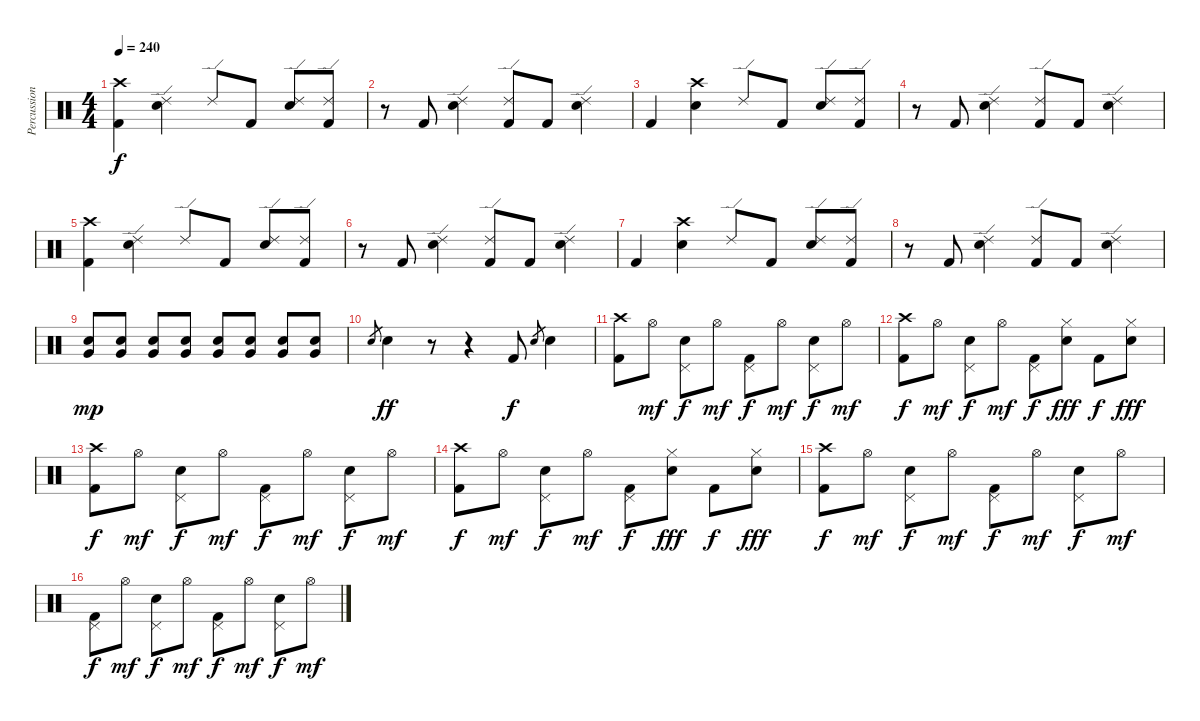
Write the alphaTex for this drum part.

\track ("Percussion" "Percussion") {instrument percussion}
\staff {score}
\articulation defaults
\ts (4 4)
\tempo 240
\clef neutral
\ks c
("Crash high (hit)" "Kick (hit) 2").4{dy f} ("Ride (edge) 2" "Snare (hit) 2").4 "Ride (edge) 2".8 "Kick (hit) 2".8 ("Ride (edge) 2" "Snare (hit) 2").8 ("Ride (edge) 2" "Kick (hit) 2").8 |
r.8 "Kick (hit) 2".8 ("Ride (edge) 2" "Snare (hit) 2").4 ("Ride (edge) 2" "Kick (hit) 2").8 "Kick (hit) 2".8 ("Ride (edge) 2" "Snare (hit) 2").4 |
"Kick (hit) 2".4 ("Crash high (hit)" "Snare (hit) 2").4 "Ride (edge) 2".8 "Kick (hit) 2".8 ("Ride (edge) 2" "Snare (hit) 2").8 ("Ride (edge) 2" "Kick (hit) 2").8 |
r.8 "Kick (hit) 2".8 ("Ride (edge) 2" "Snare (hit) 2").4 ("Ride (edge) 2" "Kick (hit) 2").8 "Kick (hit) 2".8 ("Ride (edge) 2" "Snare (hit) 2").4 |
("Crash high (hit)" "Kick (hit) 2").4 ("Ride (edge) 2" "Snare (hit) 2").4 "Ride (edge) 2".8 "Kick (hit) 2".8 ("Ride (edge) 2" "Snare (hit) 2").8 ("Ride (edge) 2" "Kick (hit) 2").8 |
r.8 "Kick (hit) 2".8 ("Ride (edge) 2" "Snare (hit) 2").4 ("Ride (edge) 2" "Kick (hit) 2").8 "Kick (hit) 2".8 ("Ride (edge) 2" "Snare (hit) 2").4 |
"Kick (hit) 2".4 ("Crash high (hit)" "Snare (hit) 2").4 "Ride (edge) 2".8 "Kick (hit) 2".8 ("Ride (edge) 2" "Snare (hit) 2").8 ("Ride (edge) 2" "Kick (hit) 2").8 |
r.8 "Kick (hit) 2".8 ("Ride (edge) 2" "Snare (hit) 2").4 ("Ride (edge) 2" "Kick (hit) 2").8 "Kick (hit) 2".8 ("Ride (edge) 2" "Snare (hit) 2").4 |
("Very Low Tom (hit)" "Snare (hit) 2").8{dy mp} ("Very Low Tom (hit)" "Snare (hit) 2").8 ("Very Low Tom (hit)" "Snare (hit) 2").8 ("Very Low Tom (hit)" "Snare (hit) 2").8 ("Very Low Tom (hit)" "Snare (hit) 2").8 ("Very Low Tom (hit)" "Snare (hit) 2").8 ("Very Low Tom (hit)" "Snare (hit) 2").8 ("Very Low Tom (hit)" "Snare (hit) 2").8 |
"Snare (hit) 2".8{gr} "Snare (hit) 2".4{dy ff} r.8 r.4 "Kick (hit) 2".8{dy f} "Snare (hit) 2".8{gr} "Snare (hit) 2".4 |
("Crash high (hit)" "Kick (hit) 2").8 "Hi-Hat (open)".8{dy mf} ("Pedal Hi-Hat (hit)" "Snare (hit) 2").8{dy f} "Hi-Hat (open)".8{dy mf} ("Pedal Hi-Hat (hit)" "Kick (hit) 2").8{dy f} "Hi-Hat (open)".8{dy mf} ("Pedal Hi-Hat (hit)" "Snare (hit) 2").8{dy f} "Hi-Hat (open)".8{dy mf} |
("Crash high (hit)" "Kick (hit) 2").8{dy f} "Hi-Hat (open)".8{dy mf} ("Pedal Hi-Hat (hit)" "Snare (hit) 2").8{dy f} "Hi-Hat (open)".8{dy mf} ("Pedal Hi-Hat (hit)" "Kick (hit) 2").8{dy f} ("Hi-Hat (closed)" "Snare (hit) 2").8{dy fff} "Kick (hit) 2".8{dy f} ("Hi-Hat (closed)" "Snare (hit) 2").8{dy fff} |
("Crash high (hit)" "Kick (hit) 2").8{dy f} "Hi-Hat (open)".8{dy mf} ("Pedal Hi-Hat (hit)" "Snare (hit) 2").8{dy f} "Hi-Hat (open)".8{dy mf} ("Pedal Hi-Hat (hit)" "Kick (hit) 2").8{dy f} "Hi-Hat (open)".8{dy mf} ("Pedal Hi-Hat (hit)" "Snare (hit) 2").8{dy f} "Hi-Hat (open)".8{dy mf} |
("Crash high (hit)" "Kick (hit) 2").8{dy f} "Hi-Hat (open)".8{dy mf} ("Pedal Hi-Hat (hit)" "Snare (hit) 2").8{dy f} "Hi-Hat (open)".8{dy mf} ("Pedal Hi-Hat (hit)" "Kick (hit) 2").8{dy f} ("Hi-Hat (closed)" "Snare (hit) 2").8{dy fff} "Kick (hit) 2".8{dy f} ("Hi-Hat (closed)" "Snare (hit) 2").8{dy fff} |
("Crash high (hit)" "Kick (hit) 2").8{dy f} "Hi-Hat (open)".8{dy mf} ("Pedal Hi-Hat (hit)" "Snare (hit) 2").8{dy f} "Hi-Hat (open)".8{dy mf} ("Pedal Hi-Hat (hit)" "Kick (hit) 2").8{dy f} "Hi-Hat (open)".8{dy mf} ("Pedal Hi-Hat (hit)" "Snare (hit) 2").8{dy f} "Hi-Hat (open)".8{dy mf} |
("Pedal Hi-Hat (hit)" "Kick (hit) 2").8{dy f} "Hi-Hat (open)".8{dy mf} ("Pedal Hi-Hat (hit)" "Snare (hit) 2").8{dy f} "Hi-Hat (open)".8{dy mf} ("Pedal Hi-Hat (hit)" "Kick (hit) 2").8{dy f} "Hi-Hat (open)".8{dy mf} ("Pedal Hi-Hat (hit)" "Snare (hit) 2").8{dy f} "Hi-Hat (open)".8{dy mf}
